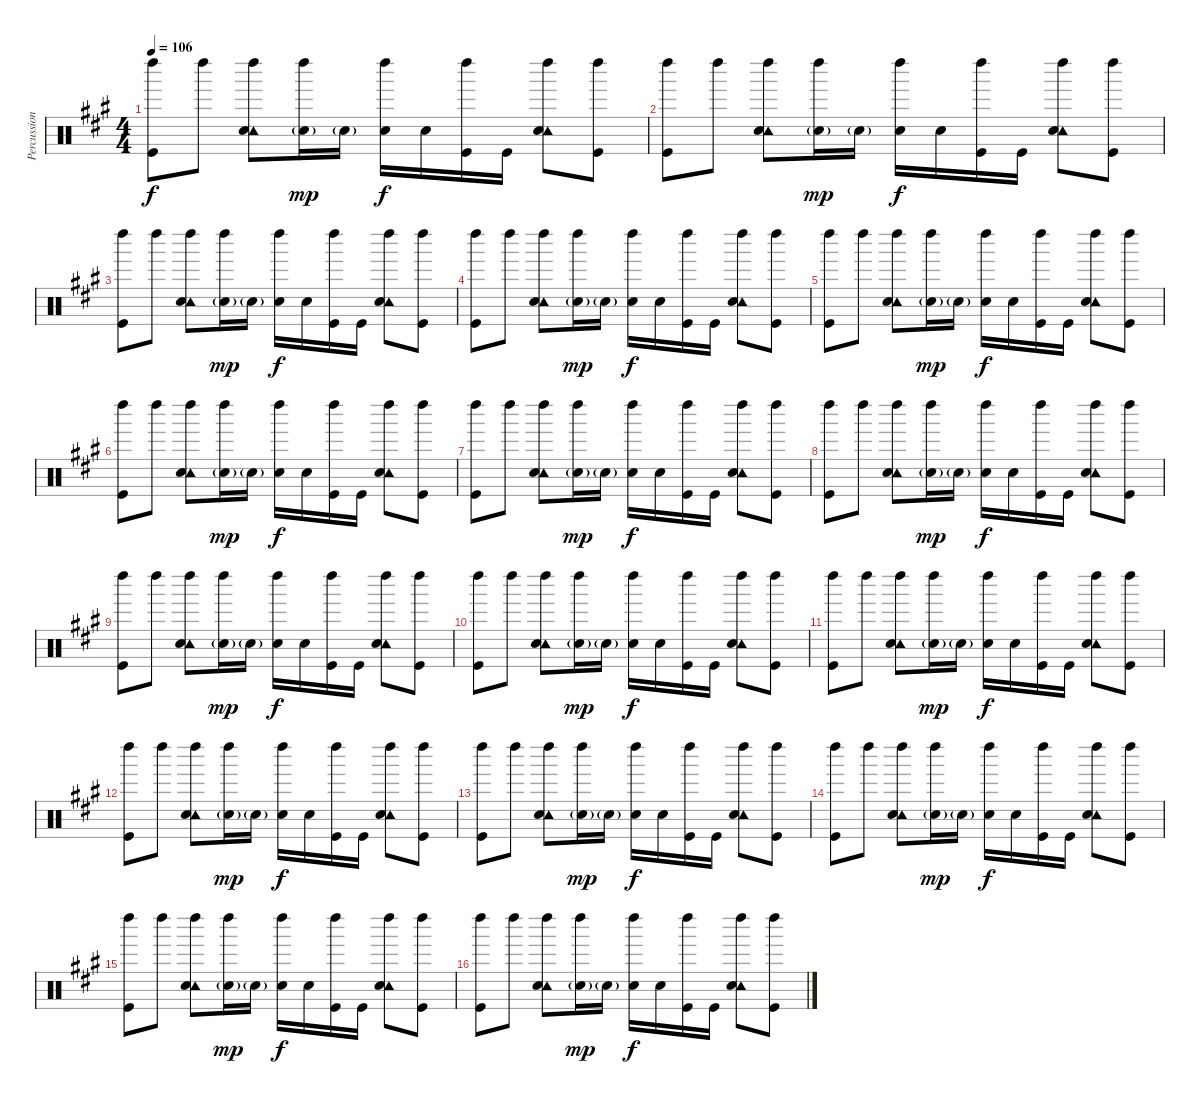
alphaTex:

\track ("Percussion" "Percussion") {instrument percussion}
\staff {score}
\articulation defaults
\ts (4 4)
\tempo 106
\clef neutral
\ks f#minor
("Left Maraca (hit)" "Kick (hit)").8{dy f} "Left Maraca (hit)".8 ("Tambourine (hit)" "Left Maraca (hit)" "Snare (hit) 2").8 ("Left Maraca (hit)" "Snare (hit) 2"{g}).16{dy mp} "Snare (hit) 2"{g}.16 ("Left Maraca (hit)" "Snare (hit) 2").16{dy f} "Snare (hit) 2".16 ("Left Maraca (hit)" "Kick (hit)").16 "Kick (hit)".16 ("Tambourine (hit)" "Left Maraca (hit)" "Snare (hit) 2").8 ("Left Maraca (hit)" "Kick (hit)").8 |
("Left Maraca (hit)" "Kick (hit)").8 "Left Maraca (hit)".8 ("Tambourine (hit)" "Left Maraca (hit)" "Snare (hit) 2").8 ("Left Maraca (hit)" "Snare (hit) 2"{g}).16{dy mp} "Snare (hit) 2"{g}.16 ("Left Maraca (hit)" "Snare (hit) 2").16{dy f} "Snare (hit) 2".16 ("Left Maraca (hit)" "Kick (hit)").16 "Kick (hit)".16 ("Tambourine (hit)" "Left Maraca (hit)" "Snare (hit) 2").8 ("Left Maraca (hit)" "Kick (hit)").8 |
("Left Maraca (hit)" "Kick (hit)").8 "Left Maraca (hit)".8 ("Tambourine (hit)" "Left Maraca (hit)" "Snare (hit) 2").8 ("Left Maraca (hit)" "Snare (hit) 2"{g}).16{dy mp} "Snare (hit) 2"{g}.16 ("Left Maraca (hit)" "Snare (hit) 2").16{dy f} "Snare (hit) 2".16 ("Left Maraca (hit)" "Kick (hit)").16 "Kick (hit)".16 ("Tambourine (hit)" "Left Maraca (hit)" "Snare (hit) 2").8 ("Left Maraca (hit)" "Kick (hit)").8 |
("Left Maraca (hit)" "Kick (hit)").8 "Left Maraca (hit)".8 ("Tambourine (hit)" "Left Maraca (hit)" "Snare (hit) 2").8 ("Left Maraca (hit)" "Snare (hit) 2"{g}).16{dy mp} "Snare (hit) 2"{g}.16 ("Left Maraca (hit)" "Snare (hit) 2").16{dy f} "Snare (hit) 2".16 ("Left Maraca (hit)" "Kick (hit)").16 "Kick (hit)".16 ("Tambourine (hit)" "Left Maraca (hit)" "Snare (hit) 2").8 ("Left Maraca (hit)" "Kick (hit)").8 |
("Left Maraca (hit)" "Kick (hit)").8 "Left Maraca (hit)".8 ("Tambourine (hit)" "Left Maraca (hit)" "Snare (hit) 2").8 ("Left Maraca (hit)" "Snare (hit) 2"{g}).16{dy mp} "Snare (hit) 2"{g}.16 ("Left Maraca (hit)" "Snare (hit) 2").16{dy f} "Snare (hit) 2".16 ("Left Maraca (hit)" "Kick (hit)").16 "Kick (hit)".16 ("Tambourine (hit)" "Left Maraca (hit)" "Snare (hit) 2").8 ("Left Maraca (hit)" "Kick (hit)").8 |
("Left Maraca (hit)" "Kick (hit)").8 "Left Maraca (hit)".8 ("Tambourine (hit)" "Left Maraca (hit)" "Snare (hit) 2").8 ("Left Maraca (hit)" "Snare (hit) 2"{g}).16{dy mp} "Snare (hit) 2"{g}.16 ("Left Maraca (hit)" "Snare (hit) 2").16{dy f} "Snare (hit) 2".16 ("Left Maraca (hit)" "Kick (hit)").16 "Kick (hit)".16 ("Tambourine (hit)" "Left Maraca (hit)" "Snare (hit) 2").8 ("Left Maraca (hit)" "Kick (hit)").8 |
("Left Maraca (hit)" "Kick (hit)").8 "Left Maraca (hit)".8 ("Tambourine (hit)" "Left Maraca (hit)" "Snare (hit) 2").8 ("Left Maraca (hit)" "Snare (hit) 2"{g}).16{dy mp} "Snare (hit) 2"{g}.16 ("Left Maraca (hit)" "Snare (hit) 2").16{dy f} "Snare (hit) 2".16 ("Left Maraca (hit)" "Kick (hit)").16 "Kick (hit)".16 ("Tambourine (hit)" "Left Maraca (hit)" "Snare (hit) 2").8 ("Left Maraca (hit)" "Kick (hit)").8 |
("Left Maraca (hit)" "Kick (hit)").8 "Left Maraca (hit)".8 ("Tambourine (hit)" "Left Maraca (hit)" "Snare (hit) 2").8 ("Left Maraca (hit)" "Snare (hit) 2"{g}).16{dy mp} "Snare (hit) 2"{g}.16 ("Left Maraca (hit)" "Snare (hit) 2").16{dy f} "Snare (hit) 2".16 ("Left Maraca (hit)" "Kick (hit)").16 "Kick (hit)".16 ("Tambourine (hit)" "Left Maraca (hit)" "Snare (hit) 2").8 ("Left Maraca (hit)" "Kick (hit)").8 |
("Left Maraca (hit)" "Kick (hit)").8 "Left Maraca (hit)".8 ("Tambourine (hit)" "Left Maraca (hit)" "Snare (hit) 2").8 ("Left Maraca (hit)" "Snare (hit) 2"{g}).16{dy mp} "Snare (hit) 2"{g}.16 ("Left Maraca (hit)" "Snare (hit) 2").16{dy f} "Snare (hit) 2".16 ("Left Maraca (hit)" "Kick (hit)").16 "Kick (hit)".16 ("Tambourine (hit)" "Left Maraca (hit)" "Snare (hit) 2").8 ("Left Maraca (hit)" "Kick (hit)").8 |
("Left Maraca (hit)" "Kick (hit)").8 "Left Maraca (hit)".8 ("Tambourine (hit)" "Left Maraca (hit)" "Snare (hit) 2").8 ("Left Maraca (hit)" "Snare (hit) 2"{g}).16{dy mp} "Snare (hit) 2"{g}.16 ("Left Maraca (hit)" "Snare (hit) 2").16{dy f} "Snare (hit) 2".16 ("Left Maraca (hit)" "Kick (hit)").16 "Kick (hit)".16 ("Tambourine (hit)" "Left Maraca (hit)" "Snare (hit) 2").8 ("Left Maraca (hit)" "Kick (hit)").8 |
("Left Maraca (hit)" "Kick (hit)").8 "Left Maraca (hit)".8 ("Tambourine (hit)" "Left Maraca (hit)" "Snare (hit) 2").8 ("Left Maraca (hit)" "Snare (hit) 2"{g}).16{dy mp} "Snare (hit) 2"{g}.16 ("Left Maraca (hit)" "Snare (hit) 2").16{dy f} "Snare (hit) 2".16 ("Left Maraca (hit)" "Kick (hit)").16 "Kick (hit)".16 ("Tambourine (hit)" "Left Maraca (hit)" "Snare (hit) 2").8 ("Left Maraca (hit)" "Kick (hit)").8 |
("Left Maraca (hit)" "Kick (hit)").8 "Left Maraca (hit)".8 ("Tambourine (hit)" "Left Maraca (hit)" "Snare (hit) 2").8 ("Left Maraca (hit)" "Snare (hit) 2"{g}).16{dy mp} "Snare (hit) 2"{g}.16 ("Left Maraca (hit)" "Snare (hit) 2").16{dy f} "Snare (hit) 2".16 ("Left Maraca (hit)" "Kick (hit)").16 "Kick (hit)".16 ("Tambourine (hit)" "Left Maraca (hit)" "Snare (hit) 2").8 ("Left Maraca (hit)" "Kick (hit)").8 |
("Left Maraca (hit)" "Kick (hit)").8 "Left Maraca (hit)".8 ("Tambourine (hit)" "Left Maraca (hit)" "Snare (hit) 2").8 ("Left Maraca (hit)" "Snare (hit) 2"{g}).16{dy mp} "Snare (hit) 2"{g}.16 ("Left Maraca (hit)" "Snare (hit) 2").16{dy f} "Snare (hit) 2".16 ("Left Maraca (hit)" "Kick (hit)").16 "Kick (hit)".16 ("Tambourine (hit)" "Left Maraca (hit)" "Snare (hit) 2").8 ("Left Maraca (hit)" "Kick (hit)").8 |
("Left Maraca (hit)" "Kick (hit)").8 "Left Maraca (hit)".8 ("Tambourine (hit)" "Left Maraca (hit)" "Snare (hit) 2").8 ("Left Maraca (hit)" "Snare (hit) 2"{g}).16{dy mp} "Snare (hit) 2"{g}.16 ("Left Maraca (hit)" "Snare (hit) 2").16{dy f} "Snare (hit) 2".16 ("Left Maraca (hit)" "Kick (hit)").16 "Kick (hit)".16 ("Tambourine (hit)" "Left Maraca (hit)" "Snare (hit) 2").8 ("Left Maraca (hit)" "Kick (hit)").8 |
("Left Maraca (hit)" "Kick (hit)").8 "Left Maraca (hit)".8 ("Tambourine (hit)" "Left Maraca (hit)" "Snare (hit) 2").8 ("Left Maraca (hit)" "Snare (hit) 2"{g}).16{dy mp} "Snare (hit) 2"{g}.16 ("Left Maraca (hit)" "Snare (hit) 2").16{dy f} "Snare (hit) 2".16 ("Left Maraca (hit)" "Kick (hit)").16 "Kick (hit)".16 ("Tambourine (hit)" "Left Maraca (hit)" "Snare (hit) 2").8 ("Left Maraca (hit)" "Kick (hit)").8 |
("Left Maraca (hit)" "Kick (hit)").8 "Left Maraca (hit)".8 ("Tambourine (hit)" "Left Maraca (hit)" "Snare (hit) 2").8 ("Left Maraca (hit)" "Snare (hit) 2"{g}).16{dy mp} "Snare (hit) 2"{g}.16 ("Left Maraca (hit)" "Snare (hit) 2").16{dy f} "Snare (hit) 2".16 ("Left Maraca (hit)" "Kick (hit)").16 "Kick (hit)".16 ("Tambourine (hit)" "Left Maraca (hit)" "Snare (hit) 2").8 ("Left Maraca (hit)" "Kick (hit)").8
